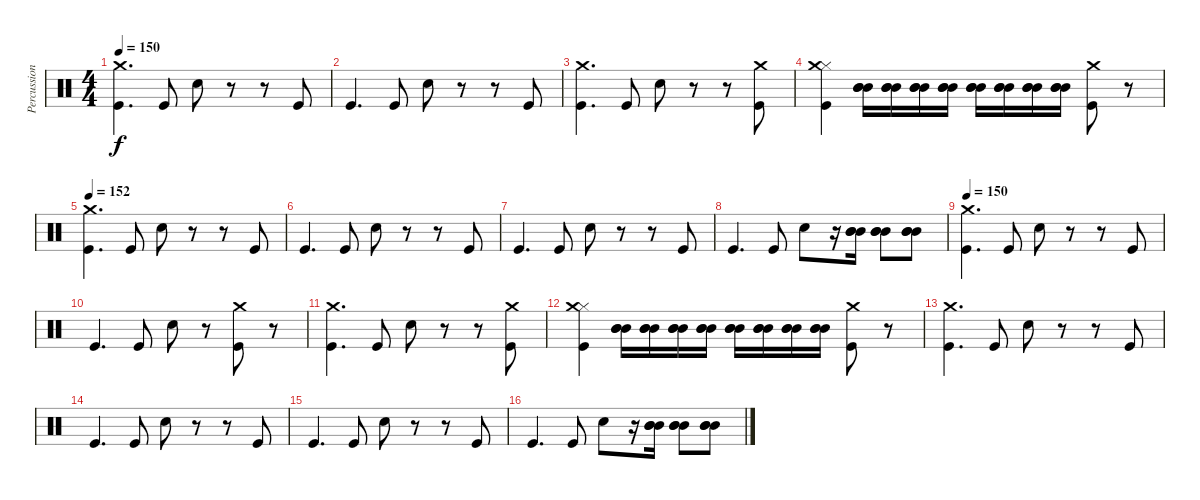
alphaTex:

\track ("Percussion" "Percussion") {instrument percussion}
\staff {score}
\articulation defaults
\ts (4 4)
\tempo 150
\clef neutral
\ks c
("Kick (hit)" "Crash medium (hit)").4{d dy f} "Kick (hit)".8 "Electric Snare (hit)".8 r.8 r.8 "Kick (hit)".8 |
"Kick (hit)".4{d} "Kick (hit)".8 "Electric Snare (hit)".8 r.8 r.8 "Kick (hit)".8 |
("Kick (hit)" "Crash medium (hit)").4{d} "Kick (hit)".8 "Electric Snare (hit)".8 r.8 r.8 ("Kick (hit)" "Crash medium (hit)").8 |
("Kick (hit)" "Hi-Hat (closed)" "Crash medium (hit)").4 ("Mid Tom (hit)" "Mid Tom (hit)" "Mid Tom (hit)").16 ("Mid Tom (hit)" "Mid Tom (hit)" "Mid Tom (hit)").16 ("Mid Tom (hit)" "Mid Tom (hit)" "Mid Tom (hit)").16 ("Mid Tom (hit)" "Mid Tom (hit)" "Mid Tom (hit)").16 ("Mid Tom (hit)" "Mid Tom (hit)" "Mid Tom (hit)").16 ("Mid Tom (hit)" "Mid Tom (hit)" "Mid Tom (hit)").16 ("Mid Tom (hit)" "Mid Tom (hit)" "Mid Tom (hit)").16 ("Mid Tom (hit)" "Mid Tom (hit)" "Mid Tom (hit)").16 ("Kick (hit)" "Crash medium (hit)").8 r.8 |
\tempo 152
("Kick (hit)" "Crash medium (hit)").4{d} "Kick (hit)".8 "Electric Snare (hit)".8 r.8 r.8 "Kick (hit)".8 |
"Kick (hit)".4{d} "Kick (hit)".8 "Electric Snare (hit)".8 r.8 r.8 "Kick (hit)".8 |
"Kick (hit)".4{d} "Kick (hit)".8 "Electric Snare (hit)".8 r.8 r.8 "Kick (hit)".8 |
"Kick (hit)".4{d} "Kick (hit)".8 "Electric Snare (hit)".8 r.16 ("Mid Tom (hit)" "Mid Tom (hit)" "Mid Tom (hit)").16 ("Mid Tom (hit)" "Mid Tom (hit)" "Mid Tom (hit)").8 ("Mid Tom (hit)" "Mid Tom (hit)" "Mid Tom (hit)").8 |
\tempo 150
("Kick (hit)" "Crash medium (hit)").4{d} "Kick (hit)".8 "Electric Snare (hit)".8 r.8 r.8 "Kick (hit)".8 |
"Kick (hit)".4{d} "Kick (hit)".8 "Electric Snare (hit)".8 r.8 ("Kick (hit)" "Crash medium (hit)").8 r.8 |
("Kick (hit)" "Crash medium (hit)").4{d} "Kick (hit)".8 "Electric Snare (hit)".8 r.8 r.8 ("Kick (hit)" "Crash medium (hit)").8 |
("Kick (hit)" "Hi-Hat (closed)" "Crash medium (hit)").4 ("Mid Tom (hit)" "Mid Tom (hit)" "Mid Tom (hit)").16 ("Mid Tom (hit)" "Mid Tom (hit)" "Mid Tom (hit)").16 ("Mid Tom (hit)" "Mid Tom (hit)" "Mid Tom (hit)").16 ("Mid Tom (hit)" "Mid Tom (hit)" "Mid Tom (hit)").16 ("Mid Tom (hit)" "Mid Tom (hit)" "Mid Tom (hit)").16 ("Mid Tom (hit)" "Mid Tom (hit)" "Mid Tom (hit)").16 ("Mid Tom (hit)" "Mid Tom (hit)" "Mid Tom (hit)").16 ("Mid Tom (hit)" "Mid Tom (hit)" "Mid Tom (hit)").16 ("Kick (hit)" "Crash medium (hit)").8 r.8 |
("Kick (hit)" "Crash medium (hit)").4{d} "Kick (hit)".8 "Electric Snare (hit)".8 r.8 r.8 "Kick (hit)".8 |
"Kick (hit)".4{d} "Kick (hit)".8 "Electric Snare (hit)".8 r.8 r.8 "Kick (hit)".8 |
"Kick (hit)".4{d} "Kick (hit)".8 "Electric Snare (hit)".8 r.8 r.8 "Kick (hit)".8 |
"Kick (hit)".4{d} "Kick (hit)".8 "Electric Snare (hit)".8 r.16 ("Mid Tom (hit)" "Mid Tom (hit)" "Mid Tom (hit)").16 ("Mid Tom (hit)" "Mid Tom (hit)" "Mid Tom (hit)").8 ("Mid Tom (hit)" "Mid Tom (hit)" "Mid Tom (hit)").8
